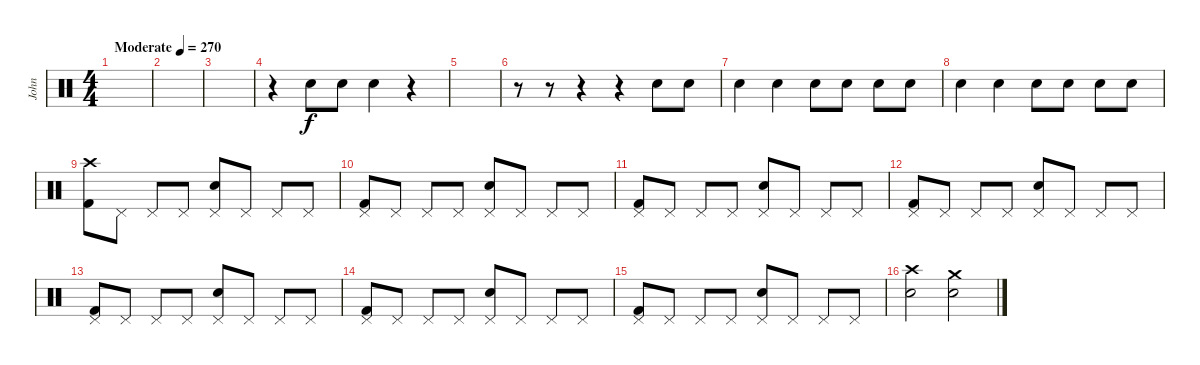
\track ("John" "John") {instrument percussion}
\staff {score}
\articulation defaults
\ts (4 4)
\tempo (270 "Moderate")
\clef neutral
\ks c
|
|
|
r.4 "Electric Snare (hit)".8 "Electric Snare (hit)".8 "Electric Snare (hit)".4 r.4 |
|
r.8 r.8 r.4 r.4 "Electric Snare (hit)".8 "Electric Snare (hit)".8 |
"Electric Snare (hit)".4 "Electric Snare (hit)".4 "Electric Snare (hit)".8 "Electric Snare (hit)".8 "Electric Snare (hit)".8 "Electric Snare (hit)".8 |
"Electric Snare (hit)".4 "Electric Snare (hit)".4 "Electric Snare (hit)".8 "Electric Snare (hit)".8 "Electric Snare (hit)".8 "Electric Snare (hit)".8 |
("Crash high (hit)" "Kick (hit) 2").8 "Pedal Hi-Hat (hit)".8 "Pedal Hi-Hat (hit)".8 "Pedal Hi-Hat (hit)".8 ("Pedal Hi-Hat (hit)" "Electric Snare (hit)").8 "Pedal Hi-Hat (hit)".8 "Pedal Hi-Hat (hit)".8 "Pedal Hi-Hat (hit)".8 |
("Pedal Hi-Hat (hit)" "Kick (hit) 2").8 "Pedal Hi-Hat (hit)".8 "Pedal Hi-Hat (hit)".8 "Pedal Hi-Hat (hit)".8 ("Pedal Hi-Hat (hit)" "Electric Snare (hit)").8 "Pedal Hi-Hat (hit)".8 "Pedal Hi-Hat (hit)".8 "Pedal Hi-Hat (hit)".8 |
("Pedal Hi-Hat (hit)" "Kick (hit) 2").8 "Pedal Hi-Hat (hit)".8 "Pedal Hi-Hat (hit)".8 "Pedal Hi-Hat (hit)".8 ("Pedal Hi-Hat (hit)" "Electric Snare (hit)").8 "Pedal Hi-Hat (hit)".8 "Pedal Hi-Hat (hit)".8 "Pedal Hi-Hat (hit)".8 |
("Pedal Hi-Hat (hit)" "Kick (hit) 2").8 "Pedal Hi-Hat (hit)".8 "Pedal Hi-Hat (hit)".8 "Pedal Hi-Hat (hit)".8 ("Pedal Hi-Hat (hit)" "Electric Snare (hit)").8 "Pedal Hi-Hat (hit)".8 "Pedal Hi-Hat (hit)".8 "Pedal Hi-Hat (hit)".8 |
("Pedal Hi-Hat (hit)" "Kick (hit) 2").8 "Pedal Hi-Hat (hit)".8 "Pedal Hi-Hat (hit)".8 "Pedal Hi-Hat (hit)".8 ("Pedal Hi-Hat (hit)" "Electric Snare (hit)").8 "Pedal Hi-Hat (hit)".8 "Pedal Hi-Hat (hit)".8 "Pedal Hi-Hat (hit)".8 |
("Pedal Hi-Hat (hit)" "Kick (hit) 2").8 "Pedal Hi-Hat (hit)".8 "Pedal Hi-Hat (hit)".8 "Pedal Hi-Hat (hit)".8 ("Pedal Hi-Hat (hit)" "Electric Snare (hit)").8 "Pedal Hi-Hat (hit)".8 "Pedal Hi-Hat (hit)".8 "Pedal Hi-Hat (hit)".8 |
("Pedal Hi-Hat (hit)" "Kick (hit) 2").8 "Pedal Hi-Hat (hit)".8 "Pedal Hi-Hat (hit)".8 "Pedal Hi-Hat (hit)".8 ("Pedal Hi-Hat (hit)" "Electric Snare (hit)").8 "Pedal Hi-Hat (hit)".8 "Pedal Hi-Hat (hit)".8 "Pedal Hi-Hat (hit)".8 |
("Crash high (hit)" "Electric Snare (hit)").2 ("Crash medium (hit)" "Electric Snare (hit)").2
